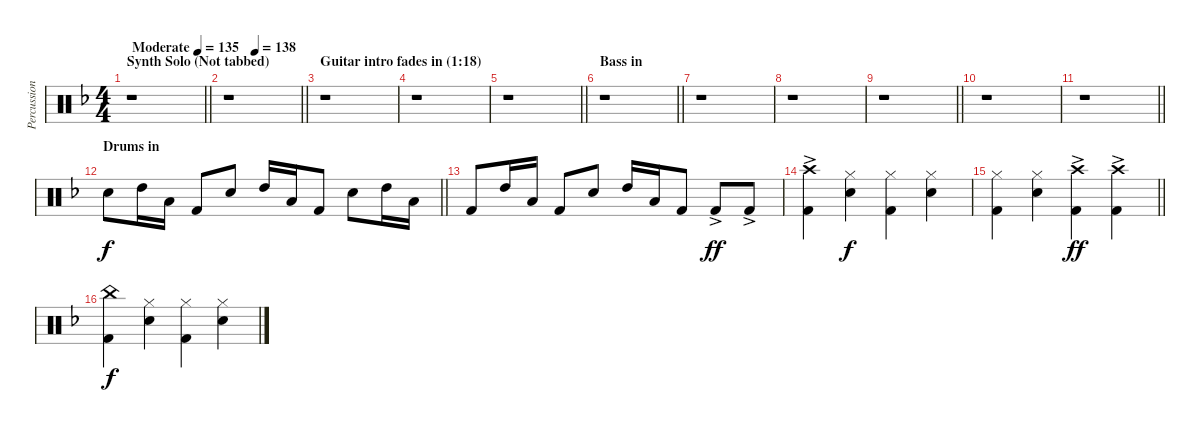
\track ("Percussion" "Percussion") {instrument percussion}
\staff {score}
\articulation defaults
\ts (4 4)
\section ("" "Synth Solo (Not tabbed)")
\tempo (135 "Moderate")
\clef neutral
\barLineRight lightlight
\ks f
r.1{dy f} |
\tempo (138 0.375)
\barLineRight lightlight
r.1 |
\section ("" "Guitar intro fades in (1:18)")
r.1 |
r.1 |
\barLineRight lightlight
r.1 |
\section ("" "Bass in")
\barLineRight lightlight
r.1 |
r.1 |
r.1 |
\barLineRight lightlight
r.1 |
r.1 |
\barLineRight lightlight
r.1 |
\section ("" "Drums in")
\barLineRight lightlight "Snare (hit) 2".8 "High Tom (hit)".16 "Low Tom (hit)".16 "Kick (hit) 2".8 "Snare (hit) 2".8 "High Tom (hit)".16 "Low Tom (hit)".16 "Kick (hit) 2".8{beam split} "Snare (hit) 2".8{beam merge} "High Tom (hit)".16 "Low Tom (hit)".16
|
"Kick (hit) 2".8 "High Tom (hit)".16 "Low Tom (hit)".16 "Kick (hit) 2".8 "Snare (hit) 2".8 "High Tom (hit)".16 "Low Tom (hit)".16 "Kick (hit) 2".8{beam split} "Kick (hit) 2"{ac}.8{dy ff beam merge} "Kick (hit) 2"{ac}.8 |
("Crash high (hit)"{ac} "Kick (hit) 2").4 ("Hi-Hat (closed)" "Snare (hit) 2").4{dy f} ("Hi-Hat (closed)" "Kick (hit) 2").4 ("Hi-Hat (closed)" "Snare (hit) 2").4 |
\barLineRight lightlight
("Hi-Hat (closed)" "Kick (hit) 2").4 ("Hi-Hat (closed)" "Snare (hit) 2").4 ("Crash high (hit)"{ac} "Kick (hit) 2"{ac}).4{dy ff} ("Crash high (hit)"{ac} "Kick (hit) 2"{ac}).4 |
("China (hit)" "Kick (hit) 2").4{dy f} ("Hi-Hat (closed)" "Snare (hit) 2").4 ("Hi-Hat (closed)" "Kick (hit) 2").4 ("Hi-Hat (closed)" "Snare (hit) 2").4
